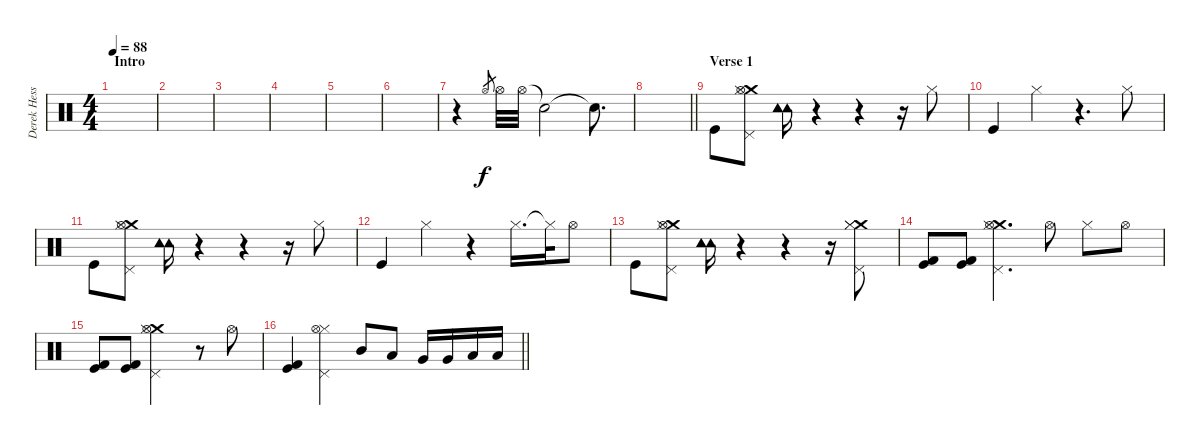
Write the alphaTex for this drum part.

\track ("Derek Hess" "Derek Hess") {instrument percussion}
\staff {score}
\articulation defaults
\ts (4 4)
\section ("" "Intro")
\tempo 88
\clef neutral
\ks c
|
|
|
|
|
|
r.4 "Hi-Hat (open)".8{gr} "Hi-Hat (open)".32 "Hi-Hat (open)".32 "Snare (hit)"{t}.2 "Snare (hit)"{t}.8{d} |
\barLineRight lightlight
|
\section ("" "Verse 1")
"Kick (hit)".8 ("Crash medium (hit)" "Pedal Hi-Hat (hit)" "Hi-Hat (open)" "Hi-Hat (closed)").8 ("Tambourine (hit)" "Tambourine (hit)" "Tambourine (hit)").16 r.4 r.4 r.16 "Hi-Hat (closed)".8 |
"Kick (hit)".4 "Hi-Hat (closed)".4 r.4{d} "Hi-Hat (closed)".8 |
"Kick (hit)".8 ("Crash medium (hit)" "Pedal Hi-Hat (hit)" "Hi-Hat (open)" "Hi-Hat (closed)").8 ("Tambourine (hit)" "Tambourine (hit)" "Tambourine (hit)").16 r.4 r.4 r.16 "Hi-Hat (closed)".8 |
"Kick (hit)".4 "Hi-Hat (closed)".4 r.4 "Hi-Hat (closed)".16{d} "Hi-Hat (closed)"{t}.32 "Hi-Hat (open)".8 |
"Kick (hit)".8 ("Crash medium (hit)" "Pedal Hi-Hat (hit)" "Hi-Hat (open)" "Hi-Hat (closed)").8 ("Tambourine (hit)" "Tambourine (hit)" "Tambourine (hit)").16 r.4 r.4 r.16 ("Crash medium (hit)" "Pedal Hi-Hat (hit)" "Hi-Hat (closed)" "Hi-Hat (closed)").8 |
("Kick (hit) 2" "Kick (hit)").8 ("Kick (hit) 2" "Kick (hit)").8 ("Crash medium (hit)" "Pedal Hi-Hat (hit)" "Hi-Hat (open)" "Hi-Hat (closed)").4{d} "Hi-Hat (open)".8 "Hi-Hat (closed)".8 "Hi-Hat (open)".8 |
("Kick (hit) 2" "Kick (hit)").8 ("Kick (hit) 2" "Kick (hit)").8 ("Crash medium (hit)" "Pedal Hi-Hat (hit)" "Hi-Hat (open)" "Hi-Hat (closed)").2 r.8 "Hi-Hat (open)".8 |
\barLineRight lightlight
("Kick (hit) 2" "Kick (hit)").4 ("Hi-Hat (closed)" "Pedal Hi-Hat (hit)" "Hi-Hat (open)").4 "Mid Tom (hit)".8 "Low Tom (hit)".8 "Very Low Tom (hit)".16 "Very Low Tom (hit)".16 "Low Floor Tom (hit)".16 "Low Tom (hit)".16
